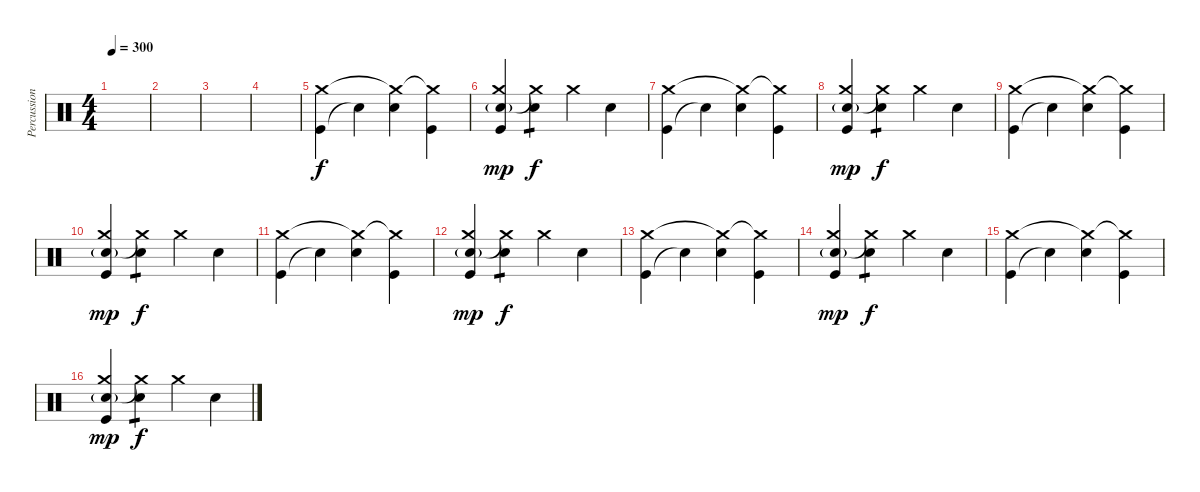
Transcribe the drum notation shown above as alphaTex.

\track ("Percussion" "Percussion") {instrument percussion}
\staff {score}
\articulation defaults
\ts (4 4)
\tempo 300
\clef neutral
\ks c
|
|
|
|
("Kick (hit)" "Crash medium (hit)").4 "Snare (hit)"{t}.4 ("Electric Snare (hit)" "Crash medium (hit)"{t}).4 ("Kick (hit)" "Crash medium (hit)"{t}).4 |
("Kick (hit)" "Electric Snare (hit)"{g} "Crash medium (hit)").4{dy mp} ("Electric Snare (hit)" "Crash medium (hit)"{t}).4{tp 1 dy f} "Crash medium (hit)".4 "Electric Snare (hit)".4 |
("Kick (hit)" "Crash medium (hit)").4 "Snare (hit)"{t}.4 ("Electric Snare (hit)" "Crash medium (hit)"{t}).4 ("Kick (hit)" "Crash medium (hit)"{t}).4 |
("Kick (hit)" "Electric Snare (hit)"{g} "Crash medium (hit)").4{dy mp} ("Electric Snare (hit)" "Crash medium (hit)"{t}).4{tp 1 dy f} "Crash medium (hit)".4 "Electric Snare (hit)".4 |
("Kick (hit)" "Crash medium (hit)").4 "Snare (hit)"{t}.4 ("Electric Snare (hit)" "Crash medium (hit)"{t}).4 ("Kick (hit)" "Crash medium (hit)"{t}).4 |
("Kick (hit)" "Electric Snare (hit)"{g} "Crash medium (hit)").4{dy mp} ("Electric Snare (hit)" "Crash medium (hit)"{t}).4{tp 1 dy f} "Crash medium (hit)".4 "Electric Snare (hit)".4 |
("Kick (hit)" "Crash medium (hit)").4 "Snare (hit)"{t}.4 ("Electric Snare (hit)" "Crash medium (hit)"{t}).4 ("Kick (hit)" "Crash medium (hit)"{t}).4 |
("Kick (hit)" "Electric Snare (hit)"{g} "Crash medium (hit)").4{dy mp} ("Electric Snare (hit)" "Crash medium (hit)"{t}).4{tp 1 dy f} "Crash medium (hit)".4 "Electric Snare (hit)".4 |
("Kick (hit)" "Crash medium (hit)").4 "Snare (hit)"{t}.4 ("Electric Snare (hit)" "Crash medium (hit)"{t}).4 ("Kick (hit)" "Crash medium (hit)"{t}).4 |
("Kick (hit)" "Electric Snare (hit)"{g} "Crash medium (hit)").4{dy mp} ("Electric Snare (hit)" "Crash medium (hit)"{t}).4{tp 1 dy f} "Crash medium (hit)".4 "Electric Snare (hit)".4 |
("Kick (hit)" "Crash medium (hit)").4 "Snare (hit)"{t}.4 ("Electric Snare (hit)" "Crash medium (hit)"{t}).4 ("Kick (hit)" "Crash medium (hit)"{t}).4 |
("Kick (hit)" "Electric Snare (hit)"{g} "Crash medium (hit)").4{dy mp} ("Electric Snare (hit)" "Crash medium (hit)"{t}).4{tp 1 dy f} "Crash medium (hit)".4 "Electric Snare (hit)".4
